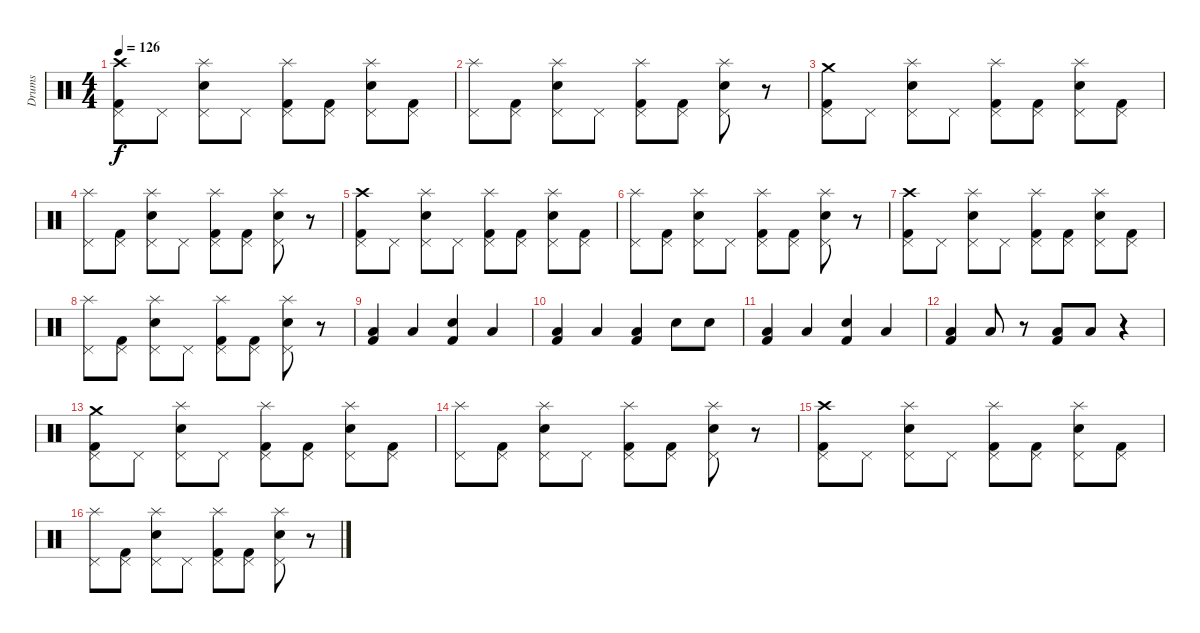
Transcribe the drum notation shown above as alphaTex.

\track ("Drums" "Drums") {instrument percussion}
\staff {score}
\articulation defaults
\ts (4 4)
\tempo 126
\clef neutral
\ks c
("Pedal Hi-Hat (hit)" "Kick (hit) 2" "Crash high (hit)").8{dy f} "Pedal Hi-Hat (hit)".8 ("Pedal Hi-Hat (hit)" "Electric Snare (hit)" "Splash (hit)").8 "Pedal Hi-Hat (hit)".8 ("Pedal Hi-Hat (hit)" "Kick (hit) 2" "Splash (hit)").8 ("Kick (hit) 2" "Pedal Hi-Hat (hit)").8 ("Splash (hit)" "Electric Snare (hit)" "Pedal Hi-Hat (hit)").8 ("Pedal Hi-Hat (hit)" "Kick (hit) 2").8 |
("Splash (hit)" "Pedal Hi-Hat (hit)").8 ("Kick (hit) 2" "Pedal Hi-Hat (hit)").8 ("Splash (hit)" "Electric Snare (hit)" "Pedal Hi-Hat (hit)").8 "Pedal Hi-Hat (hit)".8 ("Splash (hit)" "Kick (hit) 2" "Pedal Hi-Hat (hit)").8 ("Pedal Hi-Hat (hit)" "Kick (hit) 2").8 ("Pedal Hi-Hat (hit)" "Electric Snare (hit)" "Splash (hit)").8 r.8 |
("Pedal Hi-Hat (hit)" "Kick (hit) 2" "Crash medium (hit)").8 "Pedal Hi-Hat (hit)".8 ("Pedal Hi-Hat (hit)" "Splash (hit)" "Electric Snare (hit)").8 "Pedal Hi-Hat (hit)".8 ("Pedal Hi-Hat (hit)" "Splash (hit)" "Kick (hit) 2").8 ("Pedal Hi-Hat (hit)" "Kick (hit) 2").8 ("Pedal Hi-Hat (hit)" "Splash (hit)" "Electric Snare (hit)").8 ("Pedal Hi-Hat (hit)" "Kick (hit) 2").8 |
("Pedal Hi-Hat (hit)" "Splash (hit)").8 ("Pedal Hi-Hat (hit)" "Kick (hit) 2").8 ("Pedal Hi-Hat (hit)" "Splash (hit)" "Electric Snare (hit)").8 "Pedal Hi-Hat (hit)".8 ("Pedal Hi-Hat (hit)" "Splash (hit)" "Kick (hit) 2").8 ("Pedal Hi-Hat (hit)" "Kick (hit) 2").8 ("Pedal Hi-Hat (hit)" "Splash (hit)" "Electric Snare (hit)").8 r.8 |
("Pedal Hi-Hat (hit)" "Kick (hit) 2" "Crash high (hit)").8 "Pedal Hi-Hat (hit)".8 ("Pedal Hi-Hat (hit)" "Electric Snare (hit)" "Splash (hit)").8 "Pedal Hi-Hat (hit)".8 ("Pedal Hi-Hat (hit)" "Kick (hit) 2" "Splash (hit)").8 ("Kick (hit) 2" "Pedal Hi-Hat (hit)").8 ("Splash (hit)" "Electric Snare (hit)" "Pedal Hi-Hat (hit)").8 ("Pedal Hi-Hat (hit)" "Kick (hit) 2").8 |
("Splash (hit)" "Pedal Hi-Hat (hit)").8 ("Kick (hit) 2" "Pedal Hi-Hat (hit)").8 ("Splash (hit)" "Electric Snare (hit)" "Pedal Hi-Hat (hit)").8 "Pedal Hi-Hat (hit)".8 ("Splash (hit)" "Kick (hit) 2" "Pedal Hi-Hat (hit)").8 ("Pedal Hi-Hat (hit)" "Kick (hit) 2").8 ("Pedal Hi-Hat (hit)" "Electric Snare (hit)" "Splash (hit)").8 r.8 |
("Pedal Hi-Hat (hit)" "Kick (hit) 2" "Crash high (hit)").8 "Pedal Hi-Hat (hit)".8 ("Pedal Hi-Hat (hit)" "Electric Snare (hit)" "Splash (hit)").8 "Pedal Hi-Hat (hit)".8 ("Pedal Hi-Hat (hit)" "Kick (hit) 2" "Splash (hit)").8 ("Kick (hit) 2" "Pedal Hi-Hat (hit)").8 ("Splash (hit)" "Electric Snare (hit)" "Pedal Hi-Hat (hit)").8 ("Pedal Hi-Hat (hit)" "Kick (hit) 2").8 |
("Splash (hit)" "Pedal Hi-Hat (hit)").8 ("Kick (hit) 2" "Pedal Hi-Hat (hit)").8 ("Splash (hit)" "Electric Snare (hit)" "Pedal Hi-Hat (hit)").8 "Pedal Hi-Hat (hit)".8 ("Splash (hit)" "Kick (hit) 2" "Pedal Hi-Hat (hit)").8 ("Pedal Hi-Hat (hit)" "Kick (hit) 2").8 ("Pedal Hi-Hat (hit)" "Electric Snare (hit)" "Splash (hit)").8 r.8 |
("Kick (hit) 2" "Low Tom (hit)").4 "Low Tom (hit)".4 ("Kick (hit) 2" "Snare (hit) 2").4 "Low Tom (hit)".4 |
("Kick (hit) 2" "Low Tom (hit)").4 "Low Tom (hit)".4 ("Kick (hit) 2" "Low Tom (hit)").4 "Electric Snare (hit)".8 "Electric Snare (hit)".8 |
("Kick (hit) 2" "Low Tom (hit)").4 "Low Tom (hit)".4 ("Kick (hit) 2" "Snare (hit) 2").4 "Low Tom (hit)".4 |
("Kick (hit) 2" "Low Tom (hit)").4 "Low Tom (hit)".8 r.8 ("Low Tom (hit)" "Kick (hit) 2").8 "Low Tom (hit)".8 r.4 |
("Pedal Hi-Hat (hit)" "Kick (hit) 2" "Crash medium (hit)").8 "Pedal Hi-Hat (hit)".8 ("Pedal Hi-Hat (hit)" "Splash (hit)" "Electric Snare (hit)").8 "Pedal Hi-Hat (hit)".8 ("Pedal Hi-Hat (hit)" "Splash (hit)" "Kick (hit) 2").8 ("Pedal Hi-Hat (hit)" "Kick (hit) 2").8 ("Pedal Hi-Hat (hit)" "Splash (hit)" "Electric Snare (hit)").8 ("Pedal Hi-Hat (hit)" "Kick (hit) 2").8 |
("Pedal Hi-Hat (hit)" "Splash (hit)").8 ("Pedal Hi-Hat (hit)" "Kick (hit) 2").8 ("Pedal Hi-Hat (hit)" "Splash (hit)" "Electric Snare (hit)").8 "Pedal Hi-Hat (hit)".8 ("Pedal Hi-Hat (hit)" "Splash (hit)" "Kick (hit) 2").8 ("Pedal Hi-Hat (hit)" "Kick (hit) 2").8 ("Pedal Hi-Hat (hit)" "Splash (hit)" "Electric Snare (hit)").8 r.8 |
("Pedal Hi-Hat (hit)" "Kick (hit) 2" "Crash high (hit)").8 "Pedal Hi-Hat (hit)".8 ("Pedal Hi-Hat (hit)" "Electric Snare (hit)" "Splash (hit)").8 "Pedal Hi-Hat (hit)".8 ("Pedal Hi-Hat (hit)" "Kick (hit) 2" "Splash (hit)").8 ("Kick (hit) 2" "Pedal Hi-Hat (hit)").8 ("Splash (hit)" "Electric Snare (hit)" "Pedal Hi-Hat (hit)").8 ("Pedal Hi-Hat (hit)" "Kick (hit) 2").8 |
("Splash (hit)" "Pedal Hi-Hat (hit)").8 ("Kick (hit) 2" "Pedal Hi-Hat (hit)").8 ("Splash (hit)" "Electric Snare (hit)" "Pedal Hi-Hat (hit)").8 "Pedal Hi-Hat (hit)".8 ("Splash (hit)" "Kick (hit) 2" "Pedal Hi-Hat (hit)").8 ("Pedal Hi-Hat (hit)" "Kick (hit) 2").8 ("Pedal Hi-Hat (hit)" "Electric Snare (hit)" "Splash (hit)").8 r.8
